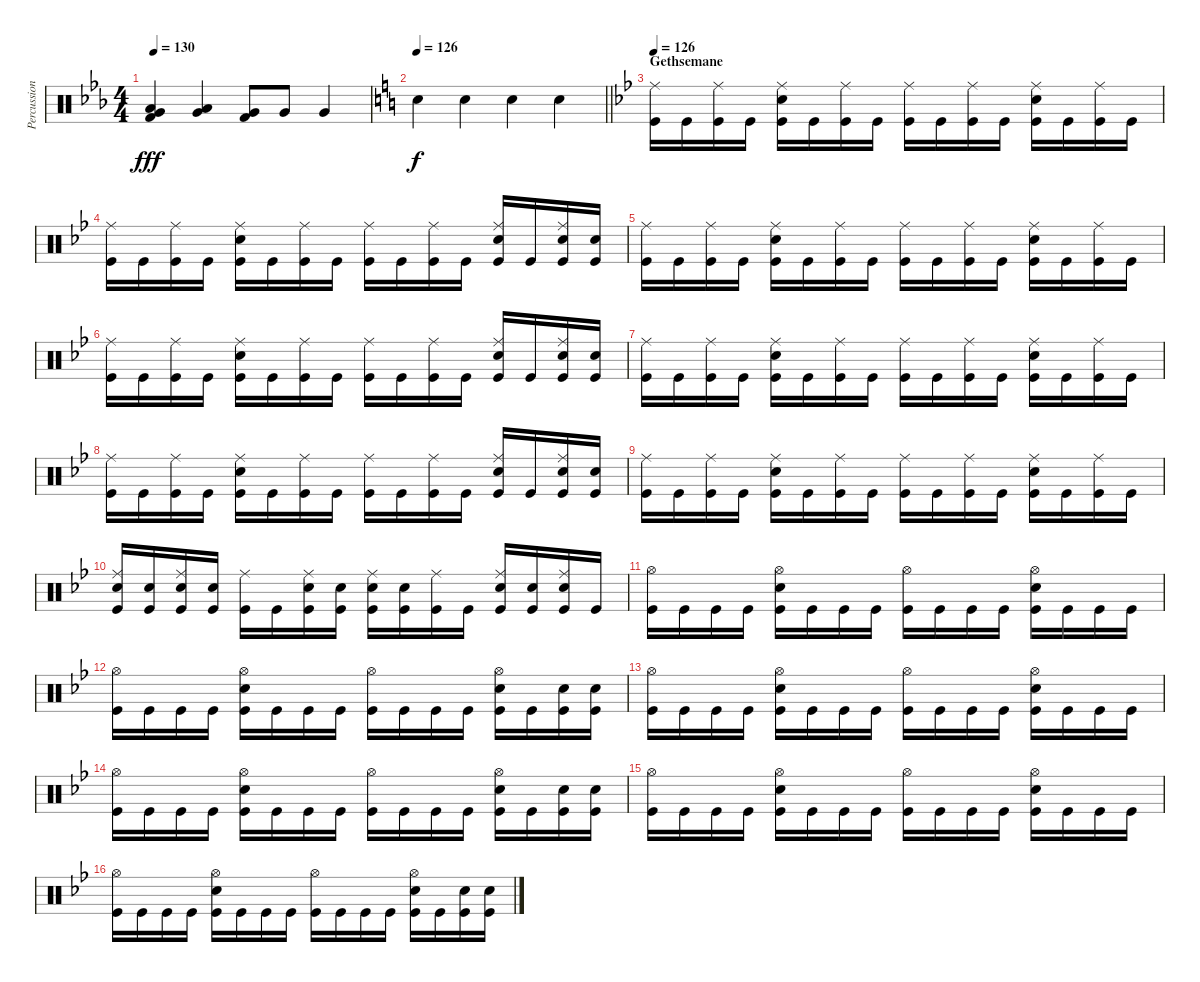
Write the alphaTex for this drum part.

\track ("Percussion" "Percussion") {instrument percussion}
\staff {score}
\articulation defaults
\ts (4 4)
\tempo 130
\clef neutral
\ks cminor
("Low Tom (hit)" "Very Low Tom (hit)" "Kick (hit) 2").4{dy fff} ("Low Tom (hit)" "Very Low Tom (hit)").4 ("Very Low Tom (hit)" "Kick (hit) 2").8 "Very Low Tom (hit)".8 "Very Low Tom (hit)".4 |
\tempo 126
\barLineRight lightlight
\ks c "Electric Snare (hit)".4{dy f} "Electric Snare (hit)".4 "Electric Snare (hit)".4 "Electric Snare (hit)".4
|
\section ("" "Gethsemane")
\tempo 126
\ks gminor
("Kick (hit)" "Ride (middle)").16 "Kick (hit)".16 ("Kick (hit)" "Ride (middle)").16 "Kick (hit)".16 ("Kick (hit)" "Snare (hit) 2" "Ride (middle)").16 "Kick (hit)".16 ("Kick (hit)" "Ride (middle)").16 "Kick (hit)".16 ("Kick (hit)" "Ride (middle)").16 "Kick (hit)".16 ("Kick (hit)" "Ride (middle)").16 "Kick (hit)".16 ("Kick (hit)" "Snare (hit) 2" "Ride (middle)").16 "Kick (hit)".16 ("Kick (hit)" "Ride (middle)").16 "Kick (hit)".16 |
("Kick (hit)" "Ride (middle)").16 "Kick (hit)".16 ("Kick (hit)" "Ride (middle)").16 "Kick (hit)".16 ("Kick (hit)" "Snare (hit) 2" "Ride (middle)").16 "Kick (hit)".16 ("Kick (hit)" "Ride (middle)").16 "Kick (hit)".16 ("Kick (hit)" "Ride (middle)").16 "Kick (hit)".16 ("Kick (hit)" "Ride (middle)").16 "Kick (hit)".16 ("Kick (hit)" "Snare (hit) 2" "Ride (middle)").16 "Kick (hit)".16 ("Kick (hit)" "Ride (middle)" "Snare (hit) 2").16 ("Kick (hit)" "Snare (hit) 2").16 |
("Kick (hit)" "Ride (middle)").16 "Kick (hit)".16 ("Kick (hit)" "Ride (middle)").16 "Kick (hit)".16 ("Kick (hit)" "Snare (hit) 2" "Ride (middle)").16 "Kick (hit)".16 ("Kick (hit)" "Ride (middle)").16 "Kick (hit)".16 ("Kick (hit)" "Ride (middle)").16 "Kick (hit)".16 ("Kick (hit)" "Ride (middle)").16 "Kick (hit)".16 ("Kick (hit)" "Snare (hit) 2" "Ride (middle)").16 "Kick (hit)".16 ("Kick (hit)" "Ride (middle)").16 "Kick (hit)".16 |
("Kick (hit)" "Ride (middle)").16 "Kick (hit)".16 ("Kick (hit)" "Ride (middle)").16 "Kick (hit)".16 ("Kick (hit)" "Snare (hit) 2" "Ride (middle)").16 "Kick (hit)".16 ("Kick (hit)" "Ride (middle)").16 "Kick (hit)".16 ("Kick (hit)" "Ride (middle)").16 "Kick (hit)".16 ("Kick (hit)" "Ride (middle)").16 "Kick (hit)".16 ("Kick (hit)" "Snare (hit) 2" "Ride (middle)").16 "Kick (hit)".16 ("Kick (hit)" "Ride (middle)" "Snare (hit) 2").16 ("Kick (hit)" "Snare (hit) 2").16 |
("Kick (hit)" "Ride (middle)").16 "Kick (hit)".16 ("Kick (hit)" "Ride (middle)").16 "Kick (hit)".16 ("Kick (hit)" "Snare (hit) 2" "Ride (middle)").16 "Kick (hit)".16 ("Kick (hit)" "Ride (middle)").16 "Kick (hit)".16 ("Kick (hit)" "Ride (middle)").16 "Kick (hit)".16 ("Kick (hit)" "Ride (middle)").16 "Kick (hit)".16 ("Kick (hit)" "Snare (hit) 2" "Ride (middle)").16 "Kick (hit)".16 ("Kick (hit)" "Ride (middle)").16 "Kick (hit)".16 |
("Kick (hit)" "Ride (middle)").16 "Kick (hit)".16 ("Kick (hit)" "Ride (middle)").16 "Kick (hit)".16 ("Kick (hit)" "Snare (hit) 2" "Ride (middle)").16 "Kick (hit)".16 ("Kick (hit)" "Ride (middle)").16 "Kick (hit)".16 ("Kick (hit)" "Ride (middle)").16 "Kick (hit)".16 ("Kick (hit)" "Ride (middle)").16 "Kick (hit)".16 ("Kick (hit)" "Snare (hit) 2" "Ride (middle)").16 "Kick (hit)".16 ("Kick (hit)" "Ride (middle)" "Snare (hit) 2").16 ("Kick (hit)" "Snare (hit) 2").16 |
("Kick (hit)" "Ride (middle)").16 "Kick (hit)".16 ("Kick (hit)" "Ride (middle)").16 "Kick (hit)".16 ("Kick (hit)" "Snare (hit) 2" "Ride (middle)").16 "Kick (hit)".16 ("Kick (hit)" "Ride (middle)").16 "Kick (hit)".16 ("Kick (hit)" "Ride (middle)").16 "Kick (hit)".16 ("Kick (hit)" "Ride (middle)").16 "Kick (hit)".16 ("Kick (hit)" "Snare (hit) 2" "Ride (middle)").16 "Kick (hit)".16 ("Kick (hit)" "Ride (middle)").16 "Kick (hit)".16 |
("Kick (hit)" "Ride (middle)" "Snare (hit) 2").16 ("Kick (hit)" "Snare (hit) 2").16 ("Kick (hit)" "Ride (middle)" "Snare (hit) 2").16 ("Kick (hit)" "Snare (hit) 2").16 ("Kick (hit)" "Ride (middle)").16 "Kick (hit)".16 ("Kick (hit)" "Ride (middle)" "Snare (hit) 2").16 ("Kick (hit)" "Snare (hit) 2").16 ("Kick (hit)" "Ride (middle)" "Snare (hit) 2").16 ("Kick (hit)" "Snare (hit) 2").16 ("Kick (hit)" "Ride (middle)").16 "Kick (hit)".16 ("Kick (hit)" "Snare (hit) 2" "Ride (middle)").16 ("Kick (hit)" "Snare (hit) 2").16 ("Kick (hit)" "Ride (middle)" "Snare (hit) 2").16 "Kick (hit)".16 |
("Kick (hit)" "Hi-Hat (open)").16 "Kick (hit)".16 "Kick (hit)".16 "Kick (hit)".16 ("Kick (hit)" "Snare (hit) 2" "Hi-Hat (open)").16 "Kick (hit)".16 "Kick (hit)".16 "Kick (hit)".16 ("Kick (hit)" "Hi-Hat (open)").16 "Kick (hit)".16 "Kick (hit)".16 "Kick (hit)".16 ("Kick (hit)" "Snare (hit) 2" "Hi-Hat (open)").16 "Kick (hit)".16 "Kick (hit)".16 "Kick (hit)".16 |
("Kick (hit)" "Hi-Hat (open)").16 "Kick (hit)".16 "Kick (hit)".16 "Kick (hit)".16 ("Kick (hit)" "Snare (hit) 2" "Hi-Hat (open)").16 "Kick (hit)".16 "Kick (hit)".16 "Kick (hit)".16 ("Kick (hit)" "Hi-Hat (open)").16 "Kick (hit)".16 "Kick (hit)".16 "Kick (hit)".16 ("Kick (hit)" "Snare (hit) 2" "Hi-Hat (open)").16 "Kick (hit)".16 ("Kick (hit)" "Snare (hit) 2").16 ("Kick (hit)" "Snare (hit) 2").16 |
("Kick (hit)" "Hi-Hat (open)").16 "Kick (hit)".16 "Kick (hit)".16 "Kick (hit)".16 ("Kick (hit)" "Snare (hit) 2" "Hi-Hat (open)").16 "Kick (hit)".16 "Kick (hit)".16 "Kick (hit)".16 ("Kick (hit)" "Hi-Hat (open)").16 "Kick (hit)".16 "Kick (hit)".16 "Kick (hit)".16 ("Kick (hit)" "Snare (hit) 2" "Hi-Hat (open)").16 "Kick (hit)".16 "Kick (hit)".16 "Kick (hit)".16 |
("Kick (hit)" "Hi-Hat (open)").16 "Kick (hit)".16 "Kick (hit)".16 "Kick (hit)".16 ("Kick (hit)" "Snare (hit) 2" "Hi-Hat (open)").16 "Kick (hit)".16 "Kick (hit)".16 "Kick (hit)".16 ("Kick (hit)" "Hi-Hat (open)").16 "Kick (hit)".16 "Kick (hit)".16 "Kick (hit)".16 ("Kick (hit)" "Snare (hit) 2" "Hi-Hat (open)").16 "Kick (hit)".16 ("Kick (hit)" "Snare (hit) 2").16 ("Kick (hit)" "Snare (hit) 2").16 |
("Kick (hit)" "Hi-Hat (open)").16 "Kick (hit)".16 "Kick (hit)".16 "Kick (hit)".16 ("Kick (hit)" "Snare (hit) 2" "Hi-Hat (open)").16 "Kick (hit)".16 "Kick (hit)".16 "Kick (hit)".16 ("Kick (hit)" "Hi-Hat (open)").16 "Kick (hit)".16 "Kick (hit)".16 "Kick (hit)".16 ("Kick (hit)" "Snare (hit) 2" "Hi-Hat (open)").16 "Kick (hit)".16 "Kick (hit)".16 "Kick (hit)".16 |
("Kick (hit)" "Hi-Hat (open)").16 "Kick (hit)".16 "Kick (hit)".16 "Kick (hit)".16 ("Kick (hit)" "Snare (hit) 2" "Hi-Hat (open)").16 "Kick (hit)".16 "Kick (hit)".16 "Kick (hit)".16 ("Kick (hit)" "Hi-Hat (open)").16 "Kick (hit)".16 "Kick (hit)".16 "Kick (hit)".16 ("Kick (hit)" "Snare (hit) 2" "Hi-Hat (open)").16 "Kick (hit)".16 ("Kick (hit)" "Snare (hit) 2").16 ("Kick (hit)" "Snare (hit) 2").16
